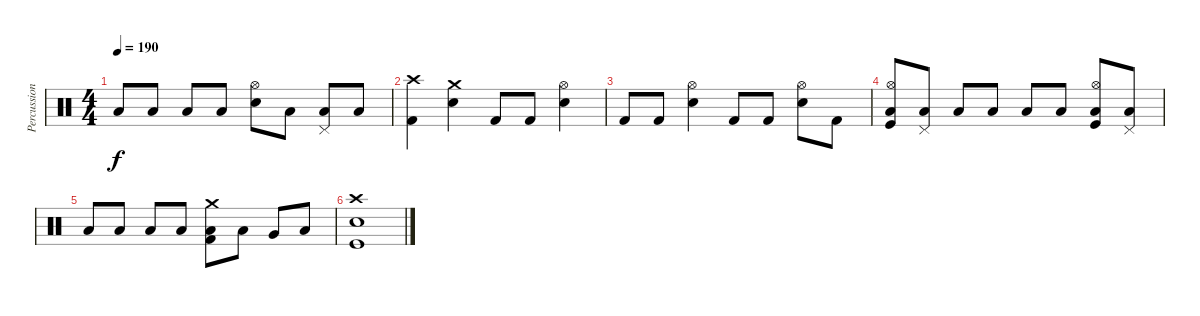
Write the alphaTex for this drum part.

\track ("Percussions" "Percussion") {instrument percussion}
\staff {score}
\articulation defaults
\ts (4 4)
\tempo 190
\clef neutral
\ks c "Low Floor Tom (hit)".8{dy f} "Low Tom (hit)".8 "Low Floor Tom (hit)".8 "Low Floor Tom (hit)".8
("Hi-Hat (open)" "Electric Snare (hit)").8 "Low Floor Tom (hit)".8 ("Pedal Hi-Hat (hit)" "Low Tom (hit)").8 "Low Floor Tom (hit)".8 |
("Crash high (hit)" "Kick (hit) 2").4 ("Crash medium (hit)" "Snare (hit) 2").4 "Kick (hit) 2".8 "Kick (hit) 2".8 ("Hi-Hat (open)" "Snare (hit) 2").4 |
"Kick (hit) 2".8 "Kick (hit) 2".8 ("Hi-Hat (open)" "Snare (hit) 2").4 "Kick (hit) 2".8 "Kick (hit) 2".8 ("Hi-Hat (open)" "Snare (hit) 2").8 "Kick (hit) 2".8 |
("Hi-Hat (open)" "Low Floor Tom (hit)" "Kick (hit)").8 ("Pedal Hi-Hat (hit)" "Low Floor Tom (hit)").8 "Low Floor Tom (hit)".8 "Low Tom (hit)".8 "Low Floor Tom (hit)".8 "Low Floor Tom (hit)".8 ("Hi-Hat (open)" "Low Floor Tom (hit)" "Kick (hit)").8 ("Pedal Hi-Hat (hit)" "Low Floor Tom (hit)").8 |
"Low Floor Tom (hit)".8 "Low Tom (hit)".8 "Low Floor Tom (hit)".8 "Low Floor Tom (hit)".8 ("Crash medium (hit)" "Low Tom (hit)" "Kick (hit) 2").8 "Low Floor Tom (hit)".8 "Very Low Tom (hit)".8 "Low Floor Tom (hit)".8 |
("Crash high (hit)" "Snare (hit) 2" "Kick (hit)").1
